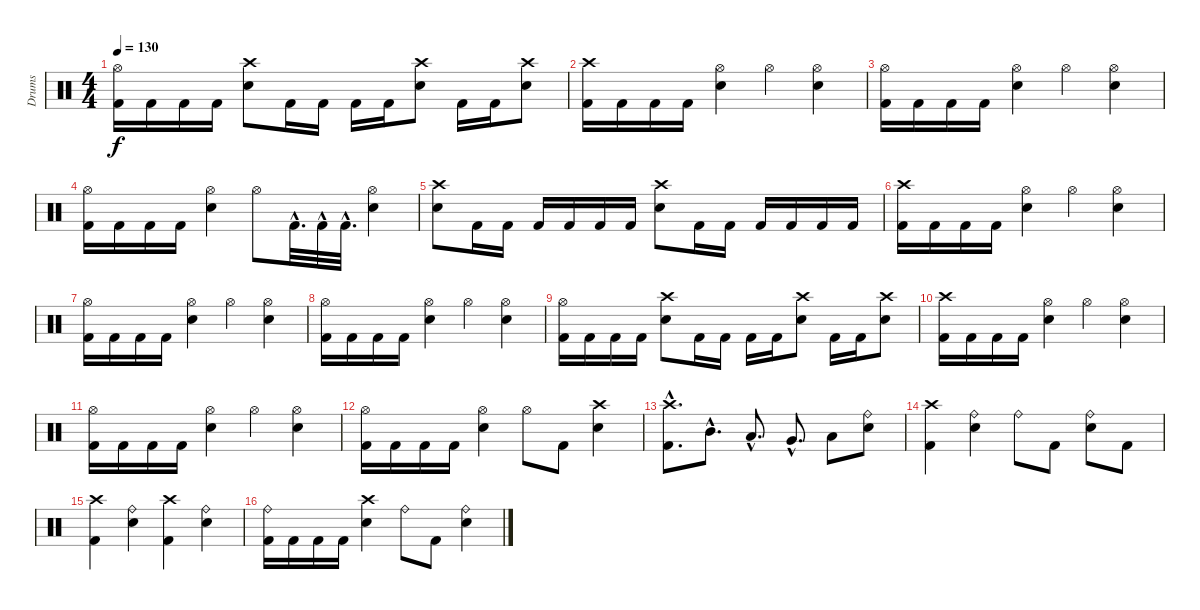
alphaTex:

\track ("Drums" "Drums") {instrument percussion}
\staff {score}
\articulation defaults
\ts (4 4)
\tempo 130
\clef neutral
\ks c
("Hi-Hat (open)" "Kick (hit) 2").16{dy f} "Kick (hit) 2".16 "Kick (hit) 2".16 "Kick (hit) 2".16 ("Crash high (hit)" "Snare (hit) 2").8 "Kick (hit) 2".16 "Kick (hit) 2".16 "Kick (hit) 2".16 "Kick (hit) 2".16 ("Snare (hit) 2" "Crash high (hit)").8 "Kick (hit) 2".16 "Kick (hit) 2".16 ("Snare (hit) 2" "Crash high (hit)").8 |
("Crash high (hit)" "Kick (hit) 2").16 "Kick (hit) 2".16 "Kick (hit) 2".16 "Kick (hit) 2".16 ("Hi-Hat (open)" "Snare (hit) 2").4 "Hi-Hat (open)".4 ("Hi-Hat (open)" "Snare (hit) 2").4 |
("Kick (hit) 2" "Hi-Hat (open)").16 "Kick (hit) 2".16 "Kick (hit) 2".16 "Kick (hit) 2".16 ("Hi-Hat (open)" "Snare (hit) 2").4 "Hi-Hat (open)".4 ("Hi-Hat (open)" "Snare (hit) 2").4 |
("Kick (hit) 2" "Hi-Hat (open)").16 "Kick (hit) 2".16 "Kick (hit) 2".16 "Kick (hit) 2".16 ("Snare (hit) 2" "Hi-Hat (open)").4 "Hi-Hat (open)".8 "Kick (hit) 2"{hac}.32{d} "Kick (hit) 2"{hac}.32 "Kick (hit) 2"{hac}.32{d} ("Hi-Hat (open)" "Snare (hit) 2").4 |
("Crash high (hit)" "Snare (hit) 2").8 "Kick (hit) 2".16 "Kick (hit) 2".16 "Kick (hit) 2".16 "Kick (hit) 2".16 "Kick (hit) 2".16 "Kick (hit) 2".16 ("Crash high (hit)" "Snare (hit) 2").8 "Kick (hit) 2".16 "Kick (hit) 2".16 "Kick (hit) 2".16 "Kick (hit) 2".16 "Kick (hit) 2".16 "Kick (hit) 2".16 |
("Kick (hit) 2" "Crash high (hit)").16 "Kick (hit) 2".16 "Kick (hit) 2".16 "Kick (hit) 2".16 ("Snare (hit) 2" "Hi-Hat (open)").4 "Hi-Hat (open)".4 ("Snare (hit) 2" "Hi-Hat (open)").4 |
("Hi-Hat (open)" "Kick (hit) 2").16 "Kick (hit) 2".16 "Kick (hit) 2".16 "Kick (hit) 2".16 ("Snare (hit) 2" "Hi-Hat (open)").4 "Hi-Hat (open)".4 ("Snare (hit) 2" "Hi-Hat (open)").4 |
("Kick (hit) 2" "Hi-Hat (open)").16 "Kick (hit) 2".16 "Kick (hit) 2".16 "Kick (hit) 2".16 ("Snare (hit) 2" "Hi-Hat (open)").4 "Hi-Hat (open)".4 ("Hi-Hat (open)" "Snare (hit) 2").4 |
("Hi-Hat (open)" "Kick (hit) 2").16 "Kick (hit) 2".16 "Kick (hit) 2".16 "Kick (hit) 2".16 ("Crash high (hit)" "Snare (hit) 2").8 "Kick (hit) 2".16 "Kick (hit) 2".16 "Kick (hit) 2".16 "Kick (hit) 2".16 ("Crash high (hit)" "Snare (hit) 2").8 "Kick (hit) 2".16 "Kick (hit) 2".16 ("Snare (hit) 2" "Crash high (hit)").8 |
("Kick (hit) 2" "Crash high (hit)").16 "Kick (hit) 2".16 "Kick (hit) 2".16 "Kick (hit) 2".16 ("Hi-Hat (open)" "Snare (hit) 2").4 "Hi-Hat (open)".4 ("Snare (hit) 2" "Hi-Hat (open)").4 |
("Hi-Hat (open)" "Kick (hit) 2").16 "Kick (hit) 2".16 "Kick (hit) 2".16 "Kick (hit) 2".16 ("Snare (hit) 2" "Hi-Hat (open)").4 "Hi-Hat (open)".4 ("Snare (hit) 2" "Hi-Hat (open)").4 |
("Kick (hit) 2" "Hi-Hat (open)").16 "Kick (hit) 2".16 "Kick (hit) 2".16 "Kick (hit) 2".16 ("Hi-Hat (open)" "Snare (hit) 2").4 "Hi-Hat (open)".8 "Kick (hit) 2".8 ("Crash high (hit)" "Snare (hit) 2").4 |
("Crash high (hit)"{hac} "Kick (hit) 2").8{d} "Mid Tom (hit)"{hac}.8{d} "Low Tom (hit)"{hac}.8{d} "Very Low Tom (hit)"{hac}.8{d} "Low Floor Tom (hit)".8 ("Ride (bell)" "Snare (hit) 2").8 |
("Crash high (hit)" "Kick (hit) 2").4 ("Ride (bell)" "Snare (hit) 2").4 "Ride (bell)".8 "Kick (hit) 2".8 ("Snare (hit) 2" "Ride (bell)").8 "Kick (hit) 2".8 |
("Kick (hit) 2" "Crash high (hit)").4 ("Ride (bell)" "Snare (hit) 2").4 ("Crash high (hit)" "Kick (hit) 2").4 ("Ride (bell)" "Snare (hit) 2").4 |
("Kick (hit) 2" "Ride (bell)").16 "Kick (hit) 2".16 "Kick (hit) 2".16 "Kick (hit) 2".16 ("Snare (hit) 2" "Crash high (hit)").4 "Ride (bell)".8 "Kick (hit) 2".8 ("Snare (hit) 2" "Ride (bell)").4
